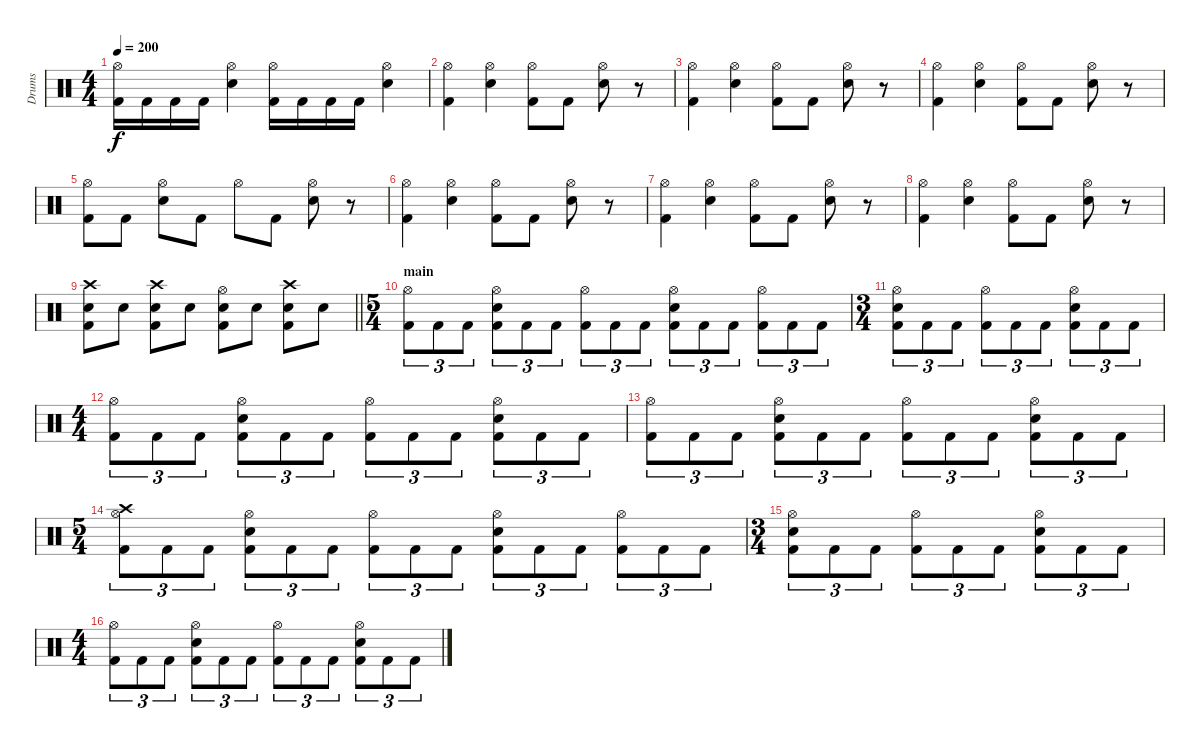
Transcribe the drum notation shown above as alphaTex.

\track ("Drums" "Drums") {instrument percussion}
\staff {score}
\articulation defaults
\ts (4 4)
\tempo 200
\clef neutral
\ks c
("Hi-Hat (open)" "Kick (hit) 2").16{dy f} "Kick (hit) 2".16 "Kick (hit) 2".16 "Kick (hit) 2".16 ("Hi-Hat (open)" "Electric Snare (hit)").4 ("Hi-Hat (open)" "Kick (hit) 2").16 "Kick (hit) 2".16 "Kick (hit) 2".16 "Kick (hit) 2".16 ("Hi-Hat (open)" "Electric Snare (hit)").4 |
("Hi-Hat (open)" "Kick (hit) 2").4 ("Hi-Hat (open)" "Electric Snare (hit)").4 ("Hi-Hat (open)" "Kick (hit) 2").8 "Kick (hit) 2".8 ("Hi-Hat (open)" "Electric Snare (hit)").8 r.8 |
("Hi-Hat (open)" "Kick (hit) 2").4 ("Hi-Hat (open)" "Electric Snare (hit)").4 ("Hi-Hat (open)" "Kick (hit) 2").8 "Kick (hit) 2".8 ("Hi-Hat (open)" "Electric Snare (hit)").8 r.8 |
("Hi-Hat (open)" "Kick (hit) 2").4 ("Hi-Hat (open)" "Electric Snare (hit)").4 ("Hi-Hat (open)" "Kick (hit) 2").8 "Kick (hit) 2".8 ("Hi-Hat (open)" "Electric Snare (hit)").8 r.8 |
("Hi-Hat (open)" "Kick (hit) 2").8 "Kick (hit) 2".8 ("Hi-Hat (open)" "Electric Snare (hit)").8 "Kick (hit) 2".8 "Hi-Hat (open)".8 "Kick (hit) 2".8 ("Hi-Hat (open)" "Electric Snare (hit)").8 r.8 |
("Hi-Hat (open)" "Kick (hit) 2").4 ("Hi-Hat (open)" "Electric Snare (hit)").4 ("Hi-Hat (open)" "Kick (hit) 2").8 "Kick (hit) 2".8 ("Hi-Hat (open)" "Electric Snare (hit)").8 r.8 |
("Hi-Hat (open)" "Kick (hit) 2").4 ("Hi-Hat (open)" "Electric Snare (hit)").4 ("Hi-Hat (open)" "Kick (hit) 2").8 "Kick (hit) 2".8 ("Hi-Hat (open)" "Electric Snare (hit)").8 r.8 |
("Hi-Hat (open)" "Kick (hit) 2").4 ("Hi-Hat (open)" "Electric Snare (hit)").4 ("Hi-Hat (open)" "Kick (hit) 2").8 "Kick (hit) 2".8 ("Hi-Hat (open)" "Electric Snare (hit)").8 r.8 |
\barLineRight lightlight
("Crash high (hit)" "Electric Snare (hit)" "Kick (hit) 2").8 "Electric Snare (hit)".8 ("Crash high (hit)" "Electric Snare (hit)" "Kick (hit) 2").8 "Electric Snare (hit)".8 ("Hi-Hat (open)" "Electric Snare (hit)" "Kick (hit) 2").8 "Electric Snare (hit)".8 ("Crash high (hit)" "Electric Snare (hit)" "Kick (hit) 2").8 "Electric Snare (hit)".8 |
\ts (5 4)
\section ("" "main")
("Hi-Hat (open)" "Kick (hit) 2").8{tu (3 2)} "Kick (hit) 2".8{tu (3 2)} "Kick (hit) 2".8{tu (3 2)} ("Hi-Hat (open)" "Electric Snare (hit)" "Kick (hit) 2").8{tu (3 2)} "Kick (hit) 2".8{tu (3 2)} "Kick (hit) 2".8{tu (3 2)} ("Hi-Hat (open)" "Kick (hit) 2").8{tu (3 2)} "Kick (hit) 2".8{tu (3 2)} "Kick (hit) 2".8{tu (3 2)} ("Hi-Hat (open)" "Electric Snare (hit)" "Kick (hit) 2").8{tu (3 2)} "Kick (hit) 2".8{tu (3 2)} "Kick (hit) 2".8{tu (3 2)} ("Hi-Hat (open)" "Kick (hit) 2").8{tu (3 2)} "Kick (hit) 2".8{tu (3 2)} "Kick (hit) 2".8{tu (3 2)} |
\ts (3 4)
("Hi-Hat (open)" "Electric Snare (hit)" "Kick (hit) 2").8{tu (3 2)} "Kick (hit) 2".8{tu (3 2)} "Kick (hit) 2".8{tu (3 2)} ("Hi-Hat (open)" "Kick (hit) 2").8{tu (3 2)} "Kick (hit) 2".8{tu (3 2)} "Kick (hit) 2".8{tu (3 2)} ("Hi-Hat (open)" "Electric Snare (hit)" "Kick (hit) 2").8{tu (3 2)} "Kick (hit) 2".8{tu (3 2)} "Kick (hit) 2".8{tu (3 2)} |
\ts (4 4)
("Hi-Hat (open)" "Kick (hit) 2").8{tu (3 2)} "Kick (hit) 2".8{tu (3 2)} "Kick (hit) 2".8{tu (3 2)} ("Hi-Hat (open)" "Electric Snare (hit)" "Kick (hit) 2").8{tu (3 2)} "Kick (hit) 2".8{tu (3 2)} "Kick (hit) 2".8{tu (3 2)} ("Hi-Hat (open)" "Kick (hit) 2").8{tu (3 2)} "Kick (hit) 2".8{tu (3 2)} "Kick (hit) 2".8{tu (3 2)} ("Hi-Hat (open)" "Electric Snare (hit)" "Kick (hit) 2").8{tu (3 2)} "Kick (hit) 2".8{tu (3 2)} "Kick (hit) 2".8{tu (3 2)} |
("Hi-Hat (open)" "Kick (hit) 2").8{tu (3 2)} "Kick (hit) 2".8{tu (3 2)} "Kick (hit) 2".8{tu (3 2)} ("Hi-Hat (open)" "Electric Snare (hit)" "Kick (hit) 2").8{tu (3 2)} "Kick (hit) 2".8{tu (3 2)} "Kick (hit) 2".8{tu (3 2)} ("Hi-Hat (open)" "Kick (hit) 2").8{tu (3 2)} "Kick (hit) 2".8{tu (3 2)} "Kick (hit) 2".8{tu (3 2)} ("Hi-Hat (open)" "Electric Snare (hit)" "Kick (hit) 2").8{tu (3 2)} "Kick (hit) 2".8{tu (3 2)} "Kick (hit) 2".8{tu (3 2)} |
\ts (5 4)
("Crash high (hit)" "Hi-Hat (open)" "Kick (hit) 2").8{tu (3 2)} "Kick (hit) 2".8{tu (3 2)} "Kick (hit) 2".8{tu (3 2)} ("Hi-Hat (open)" "Electric Snare (hit)" "Kick (hit) 2").8{tu (3 2)} "Kick (hit) 2".8{tu (3 2)} "Kick (hit) 2".8{tu (3 2)} ("Hi-Hat (open)" "Kick (hit) 2").8{tu (3 2)} "Kick (hit) 2".8{tu (3 2)} "Kick (hit) 2".8{tu (3 2)} ("Hi-Hat (open)" "Electric Snare (hit)" "Kick (hit) 2").8{tu (3 2)} "Kick (hit) 2".8{tu (3 2)} "Kick (hit) 2".8{tu (3 2)} ("Hi-Hat (open)" "Kick (hit) 2").8{tu (3 2)} "Kick (hit) 2".8{tu (3 2)} "Kick (hit) 2".8{tu (3 2)} |
\ts (3 4)
("Hi-Hat (open)" "Electric Snare (hit)" "Kick (hit) 2").8{tu (3 2)} "Kick (hit) 2".8{tu (3 2)} "Kick (hit) 2".8{tu (3 2)} ("Hi-Hat (open)" "Kick (hit) 2").8{tu (3 2)} "Kick (hit) 2".8{tu (3 2)} "Kick (hit) 2".8{tu (3 2)} ("Hi-Hat (open)" "Electric Snare (hit)" "Kick (hit) 2").8{tu (3 2)} "Kick (hit) 2".8{tu (3 2)} "Kick (hit) 2".8{tu (3 2)} |
\ts (4 4)
("Hi-Hat (open)" "Kick (hit) 2").8{tu (3 2)} "Kick (hit) 2".8{tu (3 2)} "Kick (hit) 2".8{tu (3 2)} ("Hi-Hat (open)" "Electric Snare (hit)" "Kick (hit) 2").8{tu (3 2)} "Kick (hit) 2".8{tu (3 2)} "Kick (hit) 2".8{tu (3 2)} ("Hi-Hat (open)" "Kick (hit) 2").8{tu (3 2)} "Kick (hit) 2".8{tu (3 2)} "Kick (hit) 2".8{tu (3 2)} ("Hi-Hat (open)" "Electric Snare (hit)" "Kick (hit) 2").8{tu (3 2)} "Kick (hit) 2".8{tu (3 2)} "Kick (hit) 2".8{tu (3 2)}
